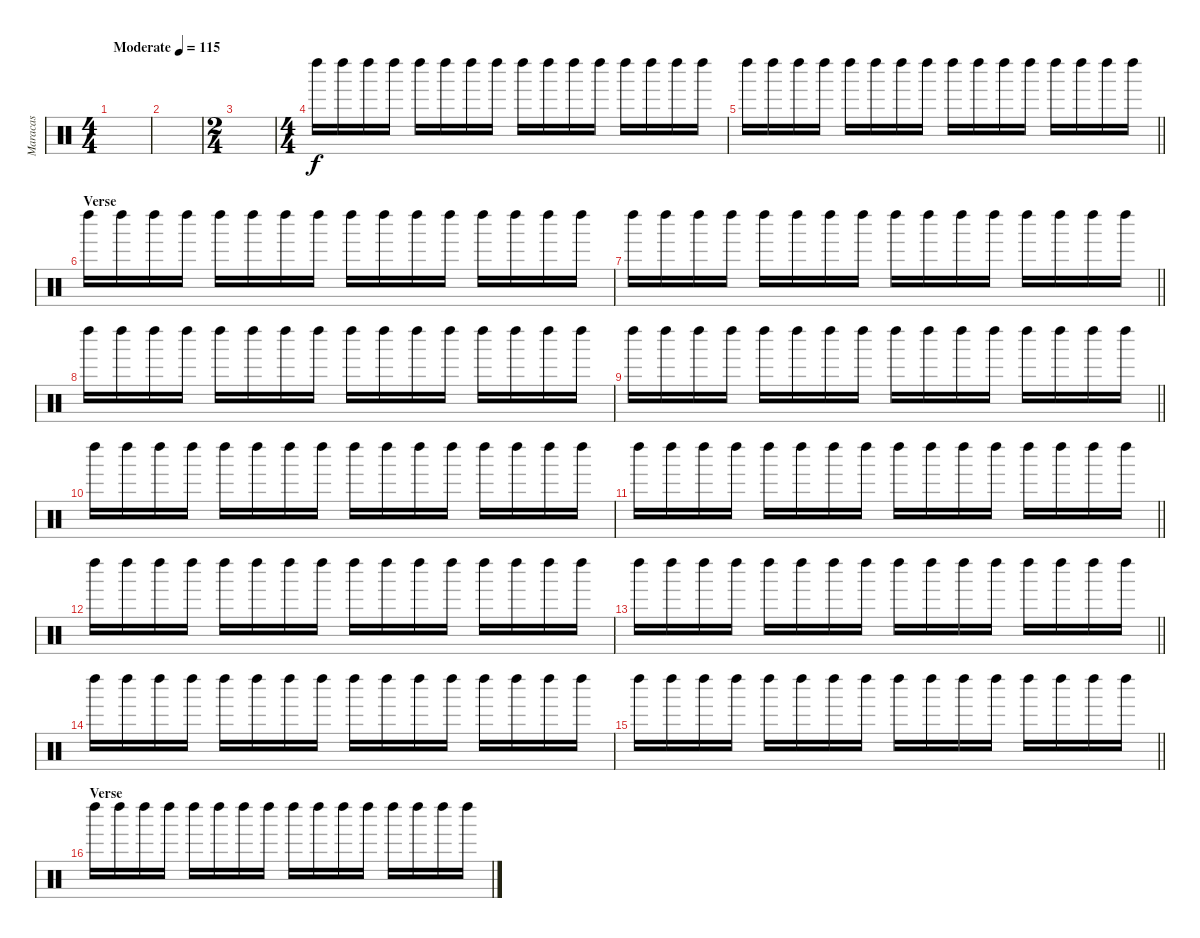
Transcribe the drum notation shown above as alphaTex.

\track ("Maracas" "Maracas") {instrument percussion}
\staff {score}
\articulation defaults
\ts (4 4)
\tempo (115 "Moderate")
\clef neutral
\ks c
|
|
\ts (2 4)
|
\ts (4 4)
"Left Maraca (hit)".16 "Left Maraca (hit)".16 "Left Maraca (hit)".16 "Left Maraca (hit)".16 "Left Maraca (hit)".16 "Left Maraca (hit)".16 "Left Maraca (hit)".16 "Left Maraca (hit)".16 "Left Maraca (hit)".16 "Left Maraca (hit)".16 "Left Maraca (hit)".16 "Left Maraca (hit)".16 "Left Maraca (hit)".16 "Left Maraca (hit)".16 "Left Maraca (hit)".16 "Left Maraca (hit)".16 |
\barLineRight lightlight "Left Maraca (hit)".16 "Left Maraca (hit)".16 "Left Maraca (hit)".16 "Left Maraca (hit)".16 "Left Maraca (hit)".16 "Left Maraca (hit)".16 "Left Maraca (hit)".16 "Left Maraca (hit)".16 "Left Maraca (hit)".16 "Left Maraca (hit)".16 "Left Maraca (hit)".16 "Left Maraca (hit)".16 "Left Maraca (hit)".16 "Left Maraca (hit)".16 "Left Maraca (hit)".16 "Left Maraca (hit)".16
|
\section ("" "Verse")
"Left Maraca (hit)".16 "Left Maraca (hit)".16 "Left Maraca (hit)".16 "Left Maraca (hit)".16 "Left Maraca (hit)".16 "Left Maraca (hit)".16 "Left Maraca (hit)".16 "Left Maraca (hit)".16 "Left Maraca (hit)".16 "Left Maraca (hit)".16 "Left Maraca (hit)".16 "Left Maraca (hit)".16 "Left Maraca (hit)".16 "Left Maraca (hit)".16 "Left Maraca (hit)".16 "Left Maraca (hit)".16 |
\barLineRight lightlight "Left Maraca (hit)".16 "Left Maraca (hit)".16 "Left Maraca (hit)".16 "Left Maraca (hit)".16 "Left Maraca (hit)".16 "Left Maraca (hit)".16 "Left Maraca (hit)".16 "Left Maraca (hit)".16 "Left Maraca (hit)".16 "Left Maraca (hit)".16 "Left Maraca (hit)".16 "Left Maraca (hit)".16 "Left Maraca (hit)".16 "Left Maraca (hit)".16 "Left Maraca (hit)".16 "Left Maraca (hit)".16
|
"Left Maraca (hit)".16 "Left Maraca (hit)".16 "Left Maraca (hit)".16 "Left Maraca (hit)".16 "Left Maraca (hit)".16 "Left Maraca (hit)".16 "Left Maraca (hit)".16 "Left Maraca (hit)".16 "Left Maraca (hit)".16 "Left Maraca (hit)".16 "Left Maraca (hit)".16 "Left Maraca (hit)".16 "Left Maraca (hit)".16 "Left Maraca (hit)".16 "Left Maraca (hit)".16 "Left Maraca (hit)".16 |
\barLineRight lightlight "Left Maraca (hit)".16 "Left Maraca (hit)".16 "Left Maraca (hit)".16 "Left Maraca (hit)".16 "Left Maraca (hit)".16 "Left Maraca (hit)".16 "Left Maraca (hit)".16 "Left Maraca (hit)".16 "Left Maraca (hit)".16 "Left Maraca (hit)".16 "Left Maraca (hit)".16 "Left Maraca (hit)".16 "Left Maraca (hit)".16 "Left Maraca (hit)".16 "Left Maraca (hit)".16 "Left Maraca (hit)".16
|
"Left Maraca (hit)".16 "Left Maraca (hit)".16 "Left Maraca (hit)".16 "Left Maraca (hit)".16 "Left Maraca (hit)".16 "Left Maraca (hit)".16 "Left Maraca (hit)".16 "Left Maraca (hit)".16 "Left Maraca (hit)".16 "Left Maraca (hit)".16 "Left Maraca (hit)".16 "Left Maraca (hit)".16 "Left Maraca (hit)".16 "Left Maraca (hit)".16 "Left Maraca (hit)".16 "Left Maraca (hit)".16 |
\barLineRight lightlight "Left Maraca (hit)".16 "Left Maraca (hit)".16 "Left Maraca (hit)".16 "Left Maraca (hit)".16 "Left Maraca (hit)".16 "Left Maraca (hit)".16 "Left Maraca (hit)".16 "Left Maraca (hit)".16 "Left Maraca (hit)".16 "Left Maraca (hit)".16 "Left Maraca (hit)".16 "Left Maraca (hit)".16 "Left Maraca (hit)".16 "Left Maraca (hit)".16 "Left Maraca (hit)".16 "Left Maraca (hit)".16
|
"Left Maraca (hit)".16 "Left Maraca (hit)".16 "Left Maraca (hit)".16 "Left Maraca (hit)".16 "Left Maraca (hit)".16 "Left Maraca (hit)".16 "Left Maraca (hit)".16 "Left Maraca (hit)".16 "Left Maraca (hit)".16 "Left Maraca (hit)".16 "Left Maraca (hit)".16 "Left Maraca (hit)".16 "Left Maraca (hit)".16 "Left Maraca (hit)".16 "Left Maraca (hit)".16 "Left Maraca (hit)".16 |
\barLineRight lightlight "Left Maraca (hit)".16 "Left Maraca (hit)".16 "Left Maraca (hit)".16 "Left Maraca (hit)".16 "Left Maraca (hit)".16 "Left Maraca (hit)".16 "Left Maraca (hit)".16 "Left Maraca (hit)".16 "Left Maraca (hit)".16 "Left Maraca (hit)".16 "Left Maraca (hit)".16 "Left Maraca (hit)".16 "Left Maraca (hit)".16 "Left Maraca (hit)".16 "Left Maraca (hit)".16 "Left Maraca (hit)".16
|
"Left Maraca (hit)".16 "Left Maraca (hit)".16 "Left Maraca (hit)".16 "Left Maraca (hit)".16 "Left Maraca (hit)".16 "Left Maraca (hit)".16 "Left Maraca (hit)".16 "Left Maraca (hit)".16 "Left Maraca (hit)".16 "Left Maraca (hit)".16 "Left Maraca (hit)".16 "Left Maraca (hit)".16 "Left Maraca (hit)".16 "Left Maraca (hit)".16 "Left Maraca (hit)".16 "Left Maraca (hit)".16 |
\barLineRight lightlight "Left Maraca (hit)".16 "Left Maraca (hit)".16 "Left Maraca (hit)".16 "Left Maraca (hit)".16 "Left Maraca (hit)".16 "Left Maraca (hit)".16 "Left Maraca (hit)".16 "Left Maraca (hit)".16 "Left Maraca (hit)".16 "Left Maraca (hit)".16 "Left Maraca (hit)".16 "Left Maraca (hit)".16 "Left Maraca (hit)".16 "Left Maraca (hit)".16 "Left Maraca (hit)".16 "Left Maraca (hit)".16
|
\section ("" "Verse")
"Left Maraca (hit)".16 "Left Maraca (hit)".16 "Left Maraca (hit)".16 "Left Maraca (hit)".16 "Left Maraca (hit)".16 "Left Maraca (hit)".16 "Left Maraca (hit)".16 "Left Maraca (hit)".16 "Left Maraca (hit)".16 "Left Maraca (hit)".16 "Left Maraca (hit)".16 "Left Maraca (hit)".16 "Left Maraca (hit)".16 "Left Maraca (hit)".16 "Left Maraca (hit)".16 "Left Maraca (hit)".16
